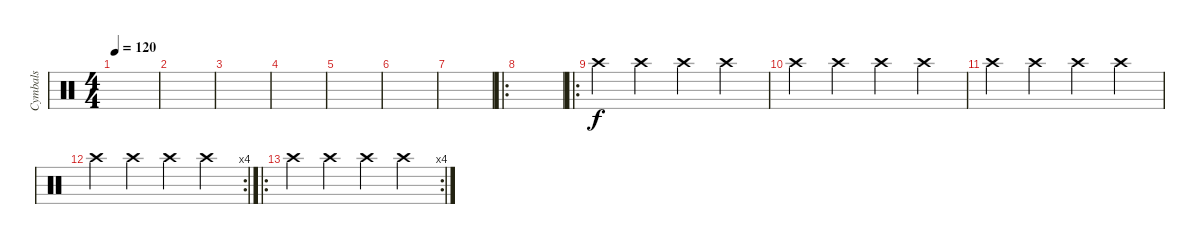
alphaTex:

\track ("Cymbals" "Cymbals") {instrument percussion}
\staff {score}
\articulation defaults
\ts (4 4)
\tempo 120
\clef neutral
\ks c
|
|
|
|
|
|
|
\ro
|
\ro "Crash high (hit)".4 "Crash high (hit)".4 "Crash high (hit)".4 "Crash high (hit)".4
|
"Crash high (hit)".4 "Crash high (hit)".4 "Crash high (hit)".4 "Crash high (hit)".4 |
"Crash high (hit)".4 "Crash high (hit)".4 "Crash high (hit)".4 "Crash high (hit)".4 |
\rc 4 "Crash high (hit)".4 "Crash high (hit)".4 "Crash high (hit)".4 "Crash high (hit)".4
|
\ro
\rc 4 "Crash high (hit)".4 "Crash high (hit)".4 "Crash high (hit)".4 "Crash high (hit)".4
